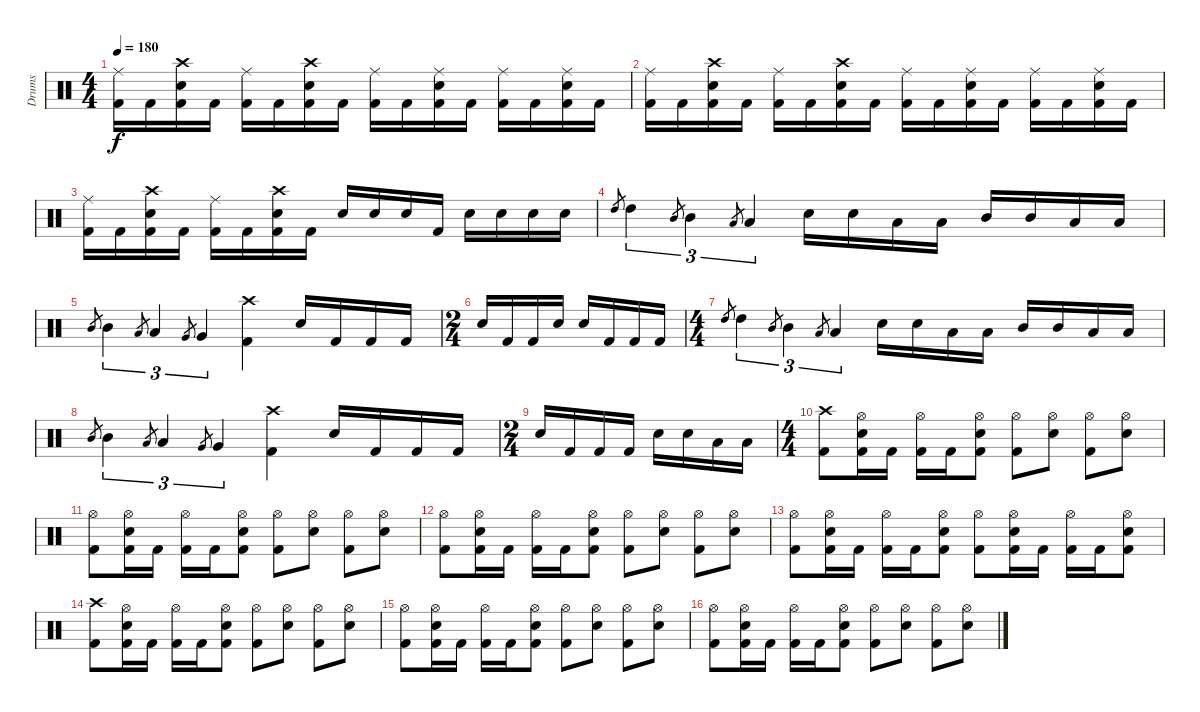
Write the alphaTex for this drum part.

\track ("Drums" "Drums") {instrument percussion}
\staff {score}
\articulation defaults
\ts (4 4)
\tempo 180
\clef neutral
\ks c
("Ride (middle)" "Kick (hit) 2").16{dy f} "Kick (hit) 2".16 ("Crash high (hit)" "Snare (hit) 2" "Kick (hit) 2").16 "Kick (hit) 2".16 ("Ride (middle)" "Kick (hit) 2").16 "Kick (hit) 2".16 ("Crash high (hit)" "Snare (hit) 2" "Kick (hit) 2").16 "Kick (hit) 2".16 ("Ride (middle)" "Kick (hit) 2").16 "Kick (hit) 2".16 ("Snare (hit) 2" "Ride (middle)" "Kick (hit) 2").16 "Kick (hit) 2".16 ("Ride (middle)" "Kick (hit) 2").16 "Kick (hit) 2".16 ("Snare (hit) 2" "Ride (middle)" "Kick (hit) 2").16 "Kick (hit) 2".16 |
("Ride (middle)" "Kick (hit) 2").16 "Kick (hit) 2".16 ("Crash high (hit)" "Snare (hit) 2" "Kick (hit) 2").16 "Kick (hit) 2".16 ("Ride (middle)" "Kick (hit) 2").16 "Kick (hit) 2".16 ("Crash high (hit)" "Snare (hit) 2" "Kick (hit) 2").16 "Kick (hit) 2".16 ("Ride (middle)" "Kick (hit) 2").16 "Kick (hit) 2".16 ("Snare (hit) 2" "Ride (middle)" "Kick (hit) 2").16 "Kick (hit) 2".16 ("Ride (middle)" "Kick (hit) 2").16 "Kick (hit) 2".16 ("Snare (hit) 2" "Ride (middle)" "Kick (hit) 2").16 "Kick (hit) 2".16 |
("Ride (middle)" "Kick (hit) 2").16 "Kick (hit) 2".16 ("Crash high (hit)" "Snare (hit) 2" "Kick (hit) 2").16 "Kick (hit) 2".16 ("Ride (middle)" "Kick (hit) 2").16 "Kick (hit) 2".16 ("Crash high (hit)" "Snare (hit) 2" "Kick (hit) 2").16 "Kick (hit) 2".16 "Snare (hit) 2".16 "Snare (hit) 2".16 "Snare (hit) 2".16 "Kick (hit) 2".16 "Snare (hit) 2".16 "Snare (hit) 2".16 "Snare (hit) 2".16 "Snare (hit) 2".16 |
"High Tom (hit)".8{gr} "High Tom (hit)".4{tu (3 2)} "Mid Tom (hit)".8{gr} "Mid Tom (hit)".4{tu (3 2)} "Low Tom (hit)".8{gr} "Low Tom (hit)".4{tu (3 2)} "Snare (hit) 2".16 "Snare (hit) 2".16 "Low Tom (hit)".16 "Low Tom (hit)".16 "Mid Tom (hit)".16 "Mid Tom (hit)".16 "Low Tom (hit)".16 "Low Tom (hit)".16 |
"Mid Tom (hit)".8{gr} "Mid Tom (hit)".4{tu (3 2)} "Low Tom (hit)".8{gr} "Low Tom (hit)".4{tu (3 2)} "Very Low Tom (hit)".8{gr} "Very Low Tom (hit)".4{tu (3 2)} ("Kick (hit) 2" "Crash high (hit)").4 "Snare (hit) 2".16 "Kick (hit) 2".16 "Kick (hit) 2".16 "Kick (hit) 2".16 |
\ts (2 4)
"Snare (hit) 2".16 "Kick (hit) 2".16 "Kick (hit) 2".16 "Snare (hit) 2".16 "Snare (hit) 2".16 "Kick (hit) 2".16 "Kick (hit) 2".16 "Kick (hit) 2".16 |
\ts (4 4)
"High Tom (hit)".8{gr} "High Tom (hit)".4{tu (3 2)} "Mid Tom (hit)".8{gr} "Mid Tom (hit)".4{tu (3 2)} "Low Tom (hit)".8{gr} "Low Tom (hit)".4{tu (3 2)} "Snare (hit) 2".16 "Snare (hit) 2".16 "Low Tom (hit)".16 "Low Tom (hit)".16 "Mid Tom (hit)".16 "Mid Tom (hit)".16 "Low Tom (hit)".16 "Low Tom (hit)".16 |
"Mid Tom (hit)".8{gr} "Mid Tom (hit)".4{tu (3 2)} "Low Tom (hit)".8{gr} "Low Tom (hit)".4{tu (3 2)} "Very Low Tom (hit)".8{gr} "Very Low Tom (hit)".4{tu (3 2)} ("Kick (hit) 2" "Crash high (hit)").4 "Snare (hit) 2".16 "Kick (hit) 2".16 "Kick (hit) 2".16 "Kick (hit) 2".16 |
\ts (2 4)
"Snare (hit) 2".16 "Kick (hit) 2".16 "Kick (hit) 2".16 "Kick (hit) 2".16 "Snare (hit) 2".16 "Snare (hit) 2".16 "Low Floor Tom (hit)".16 "Low Floor Tom (hit)".16 |
\ts (4 4)
("Kick (hit) 2" "Crash high (hit)").8 ("Kick (hit) 2" "Snare (hit) 2" "Hi-Hat (open)").16 "Kick (hit) 2".16 ("Kick (hit) 2" "Hi-Hat (open)").16 "Kick (hit) 2".16 ("Kick (hit) 2" "Snare (hit) 2" "Hi-Hat (open)").8 ("Hi-Hat (open)" "Kick (hit) 2").8 ("Snare (hit) 2" "Hi-Hat (open)").8 ("Hi-Hat (open)" "Kick (hit) 2").8 ("Snare (hit) 2" "Hi-Hat (open)").8 |
("Kick (hit) 2" "Hi-Hat (open)").8 ("Kick (hit) 2" "Snare (hit) 2" "Hi-Hat (open)").16 "Kick (hit) 2".16 ("Kick (hit) 2" "Hi-Hat (open)").16 "Kick (hit) 2".16 ("Kick (hit) 2" "Snare (hit) 2" "Hi-Hat (open)").8 ("Hi-Hat (open)" "Kick (hit) 2").8 ("Snare (hit) 2" "Hi-Hat (open)").8 ("Hi-Hat (open)" "Kick (hit) 2").8 ("Snare (hit) 2" "Hi-Hat (open)").8 |
("Kick (hit) 2" "Hi-Hat (open)").8 ("Kick (hit) 2" "Snare (hit) 2" "Hi-Hat (open)").16 "Kick (hit) 2".16 ("Kick (hit) 2" "Hi-Hat (open)").16 "Kick (hit) 2".16 ("Kick (hit) 2" "Snare (hit) 2" "Hi-Hat (open)").8 ("Hi-Hat (open)" "Kick (hit) 2").8 ("Snare (hit) 2" "Hi-Hat (open)").8 ("Hi-Hat (open)" "Kick (hit) 2").8 ("Snare (hit) 2" "Hi-Hat (open)").8 |
("Kick (hit) 2" "Hi-Hat (open)").8 ("Kick (hit) 2" "Snare (hit) 2" "Hi-Hat (open)").16 "Kick (hit) 2".16 ("Kick (hit) 2" "Hi-Hat (open)").16 "Kick (hit) 2".16 ("Kick (hit) 2" "Snare (hit) 2" "Hi-Hat (open)").8 ("Hi-Hat (open)" "Kick (hit) 2").8 ("Kick (hit) 2" "Snare (hit) 2" "Hi-Hat (open)").16 "Kick (hit) 2".16 ("Kick (hit) 2" "Hi-Hat (open)").16 "Kick (hit) 2".16 ("Hi-Hat (open)" "Kick (hit) 2" "Snare (hit) 2").8 |
("Kick (hit) 2" "Crash high (hit)").8 ("Kick (hit) 2" "Snare (hit) 2" "Hi-Hat (open)").16 "Kick (hit) 2".16 ("Kick (hit) 2" "Hi-Hat (open)").16 "Kick (hit) 2".16 ("Kick (hit) 2" "Snare (hit) 2" "Hi-Hat (open)").8 ("Hi-Hat (open)" "Kick (hit) 2").8 ("Snare (hit) 2" "Hi-Hat (open)").8 ("Hi-Hat (open)" "Kick (hit) 2").8 ("Snare (hit) 2" "Hi-Hat (open)").8 |
("Kick (hit) 2" "Hi-Hat (open)").8 ("Kick (hit) 2" "Snare (hit) 2" "Hi-Hat (open)").16 "Kick (hit) 2".16 ("Kick (hit) 2" "Hi-Hat (open)").16 "Kick (hit) 2".16 ("Kick (hit) 2" "Snare (hit) 2" "Hi-Hat (open)").8 ("Hi-Hat (open)" "Kick (hit) 2").8 ("Snare (hit) 2" "Hi-Hat (open)").8 ("Hi-Hat (open)" "Kick (hit) 2").8 ("Snare (hit) 2" "Hi-Hat (open)").8 |
("Kick (hit) 2" "Hi-Hat (open)").8 ("Kick (hit) 2" "Snare (hit) 2" "Hi-Hat (open)").16 "Kick (hit) 2".16 ("Kick (hit) 2" "Hi-Hat (open)").16 "Kick (hit) 2".16 ("Kick (hit) 2" "Snare (hit) 2" "Hi-Hat (open)").8 ("Hi-Hat (open)" "Kick (hit) 2").8 ("Snare (hit) 2" "Hi-Hat (open)").8 ("Hi-Hat (open)" "Kick (hit) 2").8 ("Snare (hit) 2" "Hi-Hat (open)").8
